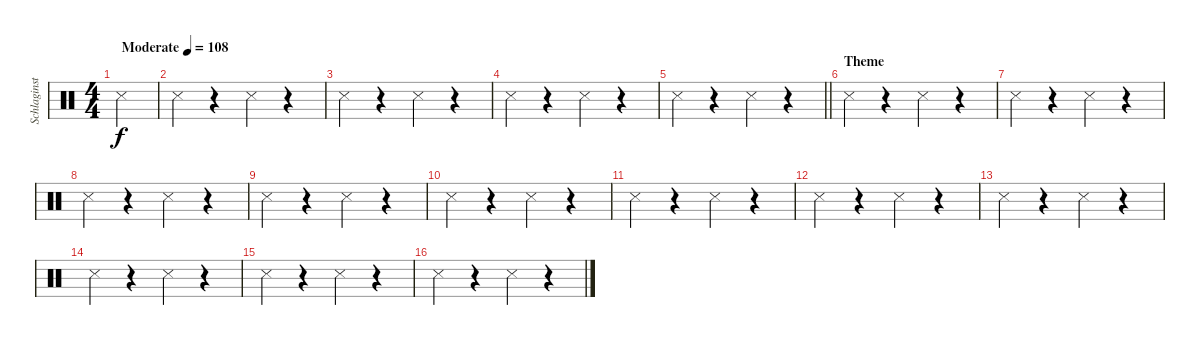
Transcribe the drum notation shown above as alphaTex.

\track ("Schlaginstrumente - Auswahl" "Schlaginst") {instrument percussion}
\staff {score}
\articulation defaults
\ts (4 4)
\tempo (108 "Moderate")
\clef neutral
\ks c "Snare (side stick) 3".4{dy f}
|
"Snare (side stick) 3".4 r.4 "Snare (side stick) 3".4 r.4 |
"Snare (side stick) 3".4 r.4 "Snare (side stick) 3".4 r.4 |
"Snare (side stick) 3".4 r.4 "Snare (side stick) 3".4 r.4 |
\barLineRight lightlight "Snare (side stick) 3".4
r.4 "Snare (side stick) 3".4 r.4 |
\section ("" "Theme")
"Snare (side stick) 3".4 r.4 "Snare (side stick) 3".4 r.4 |
"Snare (side stick) 3".4 r.4 "Snare (side stick) 3".4 r.4 |
"Snare (side stick) 3".4 r.4 "Snare (side stick) 3".4 r.4 |
"Snare (side stick) 3".4 r.4 "Snare (side stick) 3".4 r.4 |
"Snare (side stick) 3".4 r.4 "Snare (side stick) 3".4 r.4 |
"Snare (side stick) 3".4 r.4 "Snare (side stick) 3".4 r.4 |
"Snare (side stick) 3".4 r.4 "Snare (side stick) 3".4 r.4 |
"Snare (side stick) 3".4 r.4 "Snare (side stick) 3".4 r.4 |
"Snare (side stick) 3".4 r.4 "Snare (side stick) 3".4 r.4 |
"Snare (side stick) 3".4 r.4 "Snare (side stick) 3".4 r.4 |
"Snare (side stick) 3".4 r.4 "Snare (side stick) 3".4 r.4
